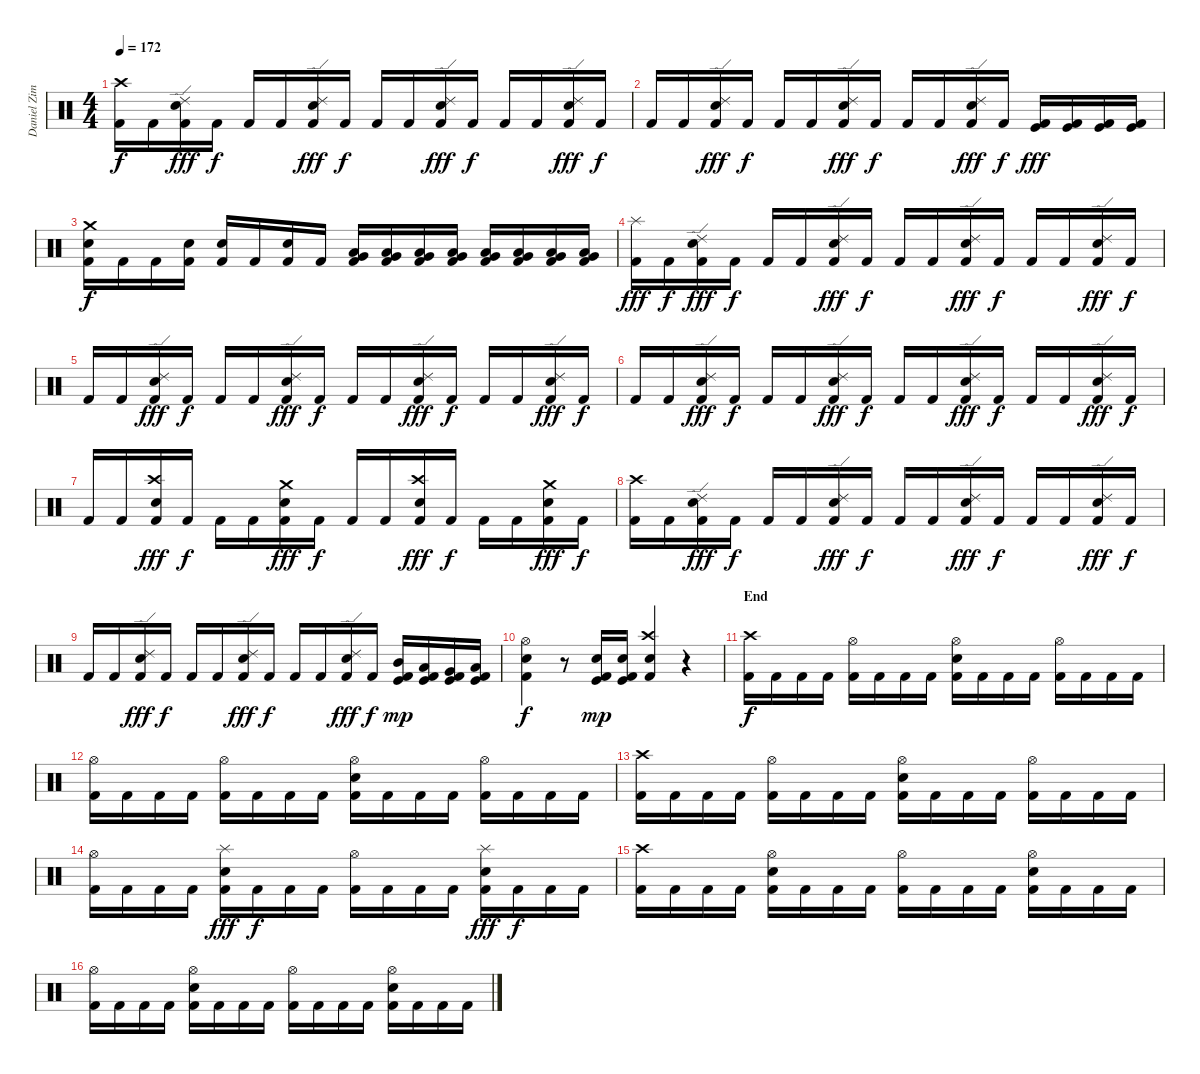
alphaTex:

\track ("Daniel Zimmermann - Drums" "Daniel Zim") {instrument percussion}
\staff {score}
\articulation defaults
\ts (4 4)
\tempo 172
\clef neutral
\ks c
("Kick (hit) 2" "Crash high (hit)").16{dy f} "Kick (hit) 2".16 ("Kick (hit) 2" "Electric Snare (hit)" "Ride (edge) 2").16{dy fff} "Kick (hit) 2".16{dy f} "Kick (hit) 2".16 "Kick (hit) 2".16 ("Kick (hit) 2" "Electric Snare (hit)" "Ride (edge) 2").16{dy fff} "Kick (hit) 2".16{dy f} "Kick (hit) 2".16 "Kick (hit) 2".16 ("Kick (hit) 2" "Electric Snare (hit)" "Ride (edge) 2").16{dy fff} "Kick (hit) 2".16{dy f} "Kick (hit) 2".16 "Kick (hit) 2".16 ("Kick (hit) 2" "Electric Snare (hit)" "Ride (edge) 2").16{dy fff} "Kick (hit) 2".16{dy f} |
"Kick (hit) 2".16 "Kick (hit) 2".16 ("Kick (hit) 2" "Electric Snare (hit)" "Ride (edge) 2").16{dy fff} "Kick (hit) 2".16{dy f} "Kick (hit) 2".16 "Kick (hit) 2".16 ("Kick (hit) 2" "Electric Snare (hit)" "Ride (edge) 2").16{dy fff} "Kick (hit) 2".16{dy f} "Kick (hit) 2".16 "Kick (hit) 2".16 ("Kick (hit) 2" "Electric Snare (hit)" "Ride (edge) 2").16{dy fff} "Kick (hit) 2".16{dy f} ("Kick (hit) 2" "Kick (hit)").16{dy fff} ("Kick (hit) 2" "Kick (hit)").16 ("Kick (hit) 2" "Kick (hit)").16 ("Kick (hit) 2" "Kick (hit)").16 |
("Kick (hit) 2" "Electric Snare (hit)" "Crash medium (hit)").16{dy f} "Kick (hit) 2".16 "Kick (hit) 2".16 ("Kick (hit) 2" "Electric Snare (hit)").16 ("Kick (hit) 2" "Electric Snare (hit)").16 "Kick (hit) 2".16 ("Kick (hit) 2" "Electric Snare (hit)").16 "Kick (hit) 2".16 ("Kick (hit) 2" "Low Tom (hit)" "Very Low Tom (hit)").16 ("Kick (hit) 2" "Low Tom (hit)" "Very Low Tom (hit)").16 ("Kick (hit) 2" "Low Tom (hit)" "Very Low Tom (hit)").16 ("Kick (hit) 2" "Low Tom (hit)" "Very Low Tom (hit)").16 ("Kick (hit) 2" "Low Tom (hit)" "Very Low Tom (hit)").16 ("Kick (hit) 2" "Low Tom (hit)" "Very Low Tom (hit)").16 ("Kick (hit) 2" "Low Tom (hit)" "Very Low Tom (hit)").16 ("Kick (hit) 2" "Low Tom (hit)" "Very Low Tom (hit)").16 |
("Kick (hit) 2" "Splash (hit)").16{dy fff} "Kick (hit) 2".16{dy f} ("Kick (hit) 2" "Electric Snare (hit)" "Ride (edge) 2").16{dy fff} "Kick (hit) 2".16{dy f} "Kick (hit) 2".16 "Kick (hit) 2".16 ("Kick (hit) 2" "Electric Snare (hit)" "Ride (edge) 2").16{dy fff} "Kick (hit) 2".16{dy f} "Kick (hit) 2".16 "Kick (hit) 2".16 ("Kick (hit) 2" "Electric Snare (hit)" "Ride (edge) 2").16{dy fff} "Kick (hit) 2".16{dy f} "Kick (hit) 2".16 "Kick (hit) 2".16 ("Kick (hit) 2" "Electric Snare (hit)" "Ride (edge) 2").16{dy fff} "Kick (hit) 2".16{dy f} |
"Kick (hit) 2".16 "Kick (hit) 2".16 ("Kick (hit) 2" "Electric Snare (hit)" "Ride (edge) 2").16{dy fff} "Kick (hit) 2".16{dy f} "Kick (hit) 2".16 "Kick (hit) 2".16 ("Kick (hit) 2" "Electric Snare (hit)" "Ride (edge) 2").16{dy fff} "Kick (hit) 2".16{dy f} "Kick (hit) 2".16 "Kick (hit) 2".16 ("Kick (hit) 2" "Electric Snare (hit)" "Ride (edge) 2").16{dy fff} "Kick (hit) 2".16{dy f} "Kick (hit) 2".16 "Kick (hit) 2".16 ("Kick (hit) 2" "Electric Snare (hit)" "Ride (edge) 2").16{dy fff} "Kick (hit) 2".16{dy f} |
"Kick (hit) 2".16 "Kick (hit) 2".16 ("Kick (hit) 2" "Electric Snare (hit)" "Ride (edge) 2").16{dy fff} "Kick (hit) 2".16{dy f} "Kick (hit) 2".16 "Kick (hit) 2".16 ("Kick (hit) 2" "Electric Snare (hit)" "Ride (edge) 2").16{dy fff} "Kick (hit) 2".16{dy f} "Kick (hit) 2".16 "Kick (hit) 2".16 ("Kick (hit) 2" "Electric Snare (hit)" "Ride (edge) 2").16{dy fff} "Kick (hit) 2".16{dy f} "Kick (hit) 2".16 "Kick (hit) 2".16 ("Kick (hit) 2" "Electric Snare (hit)" "Ride (edge) 2").16{dy fff} "Kick (hit) 2".16{dy f} |
"Kick (hit) 2".16 "Kick (hit) 2".16 ("Kick (hit) 2" "Electric Snare (hit)" "Crash high (hit)").16{dy fff} "Kick (hit) 2".16{dy f} "Kick (hit) 2".16 "Kick (hit) 2".16 ("Kick (hit) 2" "Electric Snare (hit)" "Crash medium (hit)").16{dy fff} "Kick (hit) 2".16{dy f} "Kick (hit) 2".16 "Kick (hit) 2".16 ("Kick (hit) 2" "Electric Snare (hit)" "Crash high (hit)").16{dy fff} "Kick (hit) 2".16{dy f} "Kick (hit) 2".16 "Kick (hit) 2".16 ("Kick (hit) 2" "Electric Snare (hit)" "Crash medium (hit)").16{dy fff} "Kick (hit) 2".16{dy f} |
("Kick (hit) 2" "Crash high (hit)").16 "Kick (hit) 2".16 ("Kick (hit) 2" "Electric Snare (hit)" "Ride (edge) 2").16{dy fff} "Kick (hit) 2".16{dy f} "Kick (hit) 2".16 "Kick (hit) 2".16 ("Kick (hit) 2" "Electric Snare (hit)" "Ride (edge) 2").16{dy fff} "Kick (hit) 2".16{dy f} "Kick (hit) 2".16 "Kick (hit) 2".16 ("Kick (hit) 2" "Electric Snare (hit)" "Ride (edge) 2").16{dy fff} "Kick (hit) 2".16{dy f} "Kick (hit) 2".16 "Kick (hit) 2".16 ("Kick (hit) 2" "Electric Snare (hit)" "Ride (edge) 2").16{dy fff} "Kick (hit) 2".16{dy f} |
"Kick (hit) 2".16 "Kick (hit) 2".16 ("Kick (hit) 2" "Electric Snare (hit)" "Ride (edge) 2").16{dy fff} "Kick (hit) 2".16{dy f} "Kick (hit) 2".16 "Kick (hit) 2".16 ("Kick (hit) 2" "Electric Snare (hit)" "Ride (edge) 2").16{dy fff} "Kick (hit) 2".16{dy f} "Kick (hit) 2".16 "Kick (hit) 2".16 ("Kick (hit) 2" "Electric Snare (hit)" "Ride (edge) 2").16{dy fff} "Kick (hit) 2".16{dy f} ("Kick (hit) 2" "Kick (hit)" "Mid Tom (hit)").16{dy mp} ("Kick (hit) 2" "Kick (hit)" "Low Tom (hit)").16 ("Kick (hit) 2" "Kick (hit)" "Very Low Tom (hit)").16 ("Kick (hit) 2" "Kick (hit)" "Low Floor Tom (hit)").16 |
("Kick (hit) 2" "Electric Snare (hit)" "Hi-Hat (open)").4{dy f} r.8 ("Kick (hit) 2" "Kick (hit)" "Electric Snare (hit)").16{dy mp} ("Kick (hit) 2" "Kick (hit)" "Electric Snare (hit)").16 ("Kick (hit) 2" "Electric Snare (hit)" "Crash high (hit)").4 r.4 |
\section ("" "End")
("Kick (hit) 2" "Crash high (hit)").16{dy f} "Kick (hit) 2".16 "Kick (hit) 2".16 "Kick (hit) 2".16 ("Kick (hit) 2" "Hi-Hat (open)").16 "Kick (hit) 2".16 "Kick (hit) 2".16 "Kick (hit) 2".16 ("Kick (hit) 2" "Electric Snare (hit)" "Hi-Hat (open)").16 "Kick (hit) 2".16 "Kick (hit) 2".16 "Kick (hit) 2".16 ("Kick (hit) 2" "Hi-Hat (open)").16 "Kick (hit) 2".16 "Kick (hit) 2".16 "Kick (hit) 2".16 |
("Kick (hit) 2" "Hi-Hat (open)").16 "Kick (hit) 2".16 "Kick (hit) 2".16 "Kick (hit) 2".16 ("Kick (hit) 2" "Hi-Hat (open)").16 "Kick (hit) 2".16 "Kick (hit) 2".16 "Kick (hit) 2".16 ("Kick (hit) 2" "Electric Snare (hit)" "Hi-Hat (open)").16 "Kick (hit) 2".16 "Kick (hit) 2".16 "Kick (hit) 2".16 ("Kick (hit) 2" "Hi-Hat (open)").16 "Kick (hit) 2".16 "Kick (hit) 2".16 "Kick (hit) 2".16 |
("Kick (hit) 2" "Crash high (hit)").16 "Kick (hit) 2".16 "Kick (hit) 2".16 "Kick (hit) 2".16 ("Kick (hit) 2" "Hi-Hat (open)").16 "Kick (hit) 2".16 "Kick (hit) 2".16 "Kick (hit) 2".16 ("Kick (hit) 2" "Electric Snare (hit)" "Hi-Hat (open)").16 "Kick (hit) 2".16 "Kick (hit) 2".16 "Kick (hit) 2".16 ("Kick (hit) 2" "Hi-Hat (open)").16 "Kick (hit) 2".16 "Kick (hit) 2".16 "Kick (hit) 2".16 |
("Kick (hit) 2" "Hi-Hat (open)").16 "Kick (hit) 2".16 "Kick (hit) 2".16 "Kick (hit) 2".16 ("Kick (hit) 2" "Electric Snare (hit)" "Splash (hit)").16{dy fff} "Kick (hit) 2".16{dy f} "Kick (hit) 2".16 "Kick (hit) 2".16 ("Kick (hit) 2" "Hi-Hat (open)").16 "Kick (hit) 2".16 "Kick (hit) 2".16 "Kick (hit) 2".16 ("Kick (hit) 2" "Electric Snare (hit)" "Splash (hit)").16{dy fff} "Kick (hit) 2".16{dy f} "Kick (hit) 2".16 "Kick (hit) 2".16 |
("Kick (hit) 2" "Crash high (hit)").16 "Kick (hit) 2".16 "Kick (hit) 2".16 "Kick (hit) 2".16 ("Kick (hit) 2" "Electric Snare (hit)" "Hi-Hat (open)").16 "Kick (hit) 2".16 "Kick (hit) 2".16 "Kick (hit) 2".16 ("Kick (hit) 2" "Hi-Hat (open)").16 "Kick (hit) 2".16 "Kick (hit) 2".16 "Kick (hit) 2".16 ("Kick (hit) 2" "Electric Snare (hit)" "Hi-Hat (open)").16 "Kick (hit) 2".16 "Kick (hit) 2".16 "Kick (hit) 2".16 |
("Kick (hit) 2" "Hi-Hat (open)").16 "Kick (hit) 2".16 "Kick (hit) 2".16 "Kick (hit) 2".16 ("Kick (hit) 2" "Electric Snare (hit)" "Hi-Hat (open)").16 "Kick (hit) 2".16 "Kick (hit) 2".16 "Kick (hit) 2".16 ("Kick (hit) 2" "Hi-Hat (open)").16 "Kick (hit) 2".16 "Kick (hit) 2".16 "Kick (hit) 2".16 ("Kick (hit) 2" "Electric Snare (hit)" "Hi-Hat (open)").16 "Kick (hit) 2".16 "Kick (hit) 2".16 "Kick (hit) 2".16
